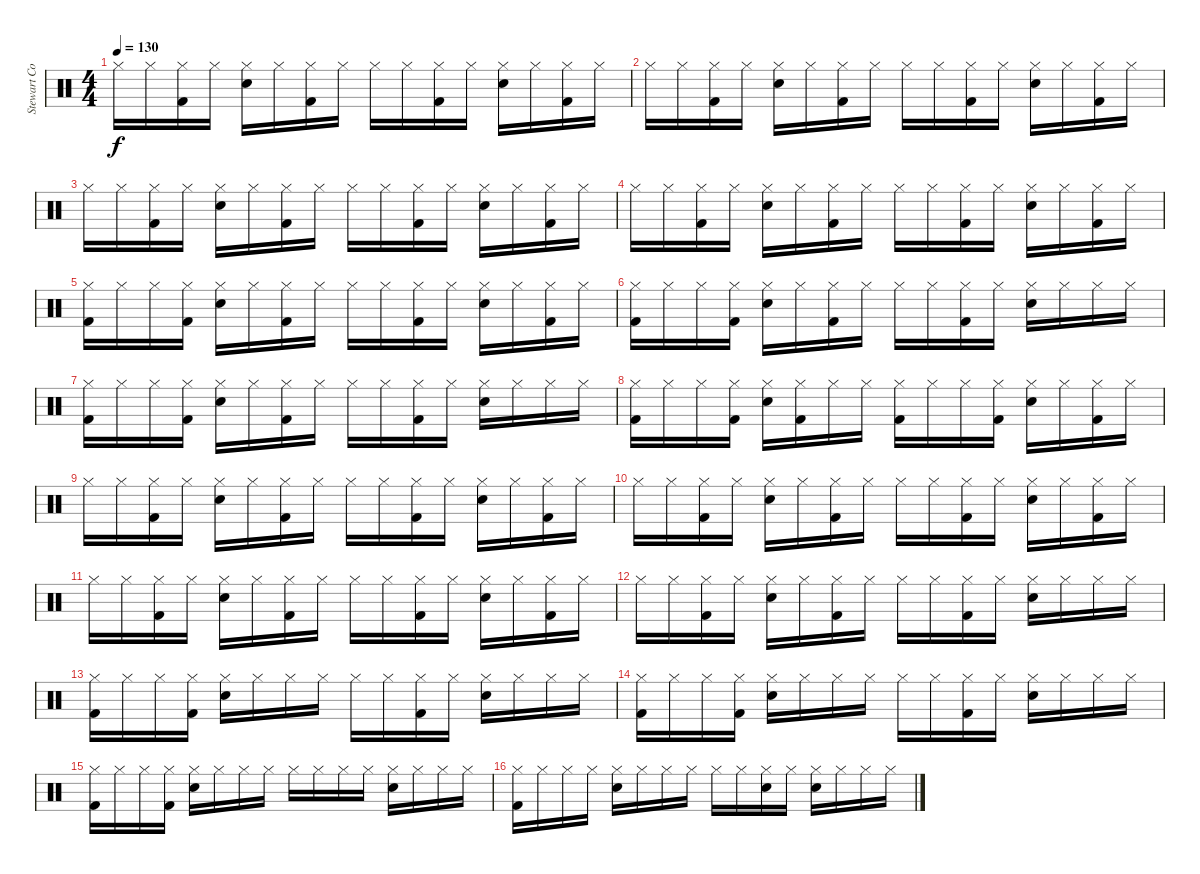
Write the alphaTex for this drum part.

\track ("Stewart Copeland" "Stewart Co") {instrument percussion}
\staff {score}
\articulation defaults
\ts (4 4)
\tempo 130
\clef neutral
\ks c "Hi-Hat (closed)".16{dy f} "Hi-Hat (closed)".16
("Hi-Hat (closed)" "Kick (hit) 2").16 "Hi-Hat (closed)".16 ("Hi-Hat (closed)" "Electric Snare (hit)").16 "Hi-Hat (closed)".16 ("Hi-Hat (closed)" "Kick (hit) 2").16 "Hi-Hat (closed)".16 "Hi-Hat (closed)".16 "Hi-Hat (closed)".16 ("Hi-Hat (closed)" "Kick (hit) 2").16 "Hi-Hat (closed)".16 ("Hi-Hat (closed)" "Electric Snare (hit)").16 "Hi-Hat (closed)".16 ("Hi-Hat (closed)" "Kick (hit) 2").16 "Hi-Hat (closed)".16 |
"Hi-Hat (closed)".16 "Hi-Hat (closed)".16 ("Hi-Hat (closed)" "Kick (hit) 2").16 "Hi-Hat (closed)".16 ("Hi-Hat (closed)" "Electric Snare (hit)").16 "Hi-Hat (closed)".16 ("Hi-Hat (closed)" "Kick (hit) 2").16 "Hi-Hat (closed)".16 "Hi-Hat (closed)".16 "Hi-Hat (closed)".16 ("Hi-Hat (closed)" "Kick (hit) 2").16 "Hi-Hat (closed)".16 ("Hi-Hat (closed)" "Electric Snare (hit)").16 "Hi-Hat (closed)".16 ("Hi-Hat (closed)" "Kick (hit) 2").16 "Hi-Hat (closed)".16 |
"Hi-Hat (closed)".16 "Hi-Hat (closed)".16 ("Hi-Hat (closed)" "Kick (hit) 2").16 "Hi-Hat (closed)".16 ("Hi-Hat (closed)" "Electric Snare (hit)").16 "Hi-Hat (closed)".16 ("Hi-Hat (closed)" "Kick (hit) 2").16 "Hi-Hat (closed)".16 "Hi-Hat (closed)".16 "Hi-Hat (closed)".16 ("Hi-Hat (closed)" "Kick (hit) 2").16 "Hi-Hat (closed)".16 ("Hi-Hat (closed)" "Electric Snare (hit)").16 "Hi-Hat (closed)".16 ("Hi-Hat (closed)" "Kick (hit) 2").16 "Hi-Hat (closed)".16 |
"Hi-Hat (closed)".16 "Hi-Hat (closed)".16 ("Hi-Hat (closed)" "Kick (hit) 2").16 "Hi-Hat (closed)".16 ("Hi-Hat (closed)" "Electric Snare (hit)").16 "Hi-Hat (closed)".16 ("Hi-Hat (closed)" "Kick (hit) 2").16 "Hi-Hat (closed)".16 "Hi-Hat (closed)".16 "Hi-Hat (closed)".16 ("Hi-Hat (closed)" "Kick (hit) 2").16 "Hi-Hat (closed)".16 ("Hi-Hat (closed)" "Electric Snare (hit)").16 "Hi-Hat (closed)".16 ("Hi-Hat (closed)" "Kick (hit) 2").16 "Hi-Hat (closed)".16 |
("Hi-Hat (closed)" "Kick (hit) 2").16 "Hi-Hat (closed)".16 "Hi-Hat (closed)".16 ("Hi-Hat (closed)" "Kick (hit) 2").16 ("Hi-Hat (closed)" "Electric Snare (hit)").16 "Hi-Hat (closed)".16 ("Hi-Hat (closed)" "Kick (hit) 2").16 "Hi-Hat (closed)".16 "Hi-Hat (closed)".16 "Hi-Hat (closed)".16 ("Hi-Hat (closed)" "Kick (hit) 2").16 "Hi-Hat (closed)".16 ("Hi-Hat (closed)" "Electric Snare (hit)").16 "Hi-Hat (closed)".16 ("Hi-Hat (closed)" "Kick (hit) 2").16 "Hi-Hat (closed)".16 |
("Hi-Hat (closed)" "Kick (hit) 2").16 "Hi-Hat (closed)".16 "Hi-Hat (closed)".16 ("Hi-Hat (closed)" "Kick (hit) 2").16 ("Hi-Hat (closed)" "Electric Snare (hit)").16 "Hi-Hat (closed)".16 ("Hi-Hat (closed)" "Kick (hit) 2").16 "Hi-Hat (closed)".16 "Hi-Hat (closed)".16 "Hi-Hat (closed)".16 ("Hi-Hat (closed)" "Kick (hit) 2").16 "Hi-Hat (closed)".16 ("Hi-Hat (closed)" "Electric Snare (hit)").16 "Hi-Hat (closed)".16 "Hi-Hat (closed)".16 "Hi-Hat (closed)".16 |
("Hi-Hat (closed)" "Kick (hit) 2").16 "Hi-Hat (closed)".16 "Hi-Hat (closed)".16 ("Hi-Hat (closed)" "Kick (hit) 2").16 ("Hi-Hat (closed)" "Electric Snare (hit)").16 "Hi-Hat (closed)".16 ("Hi-Hat (closed)" "Kick (hit) 2").16 "Hi-Hat (closed)".16 "Hi-Hat (closed)".16 "Hi-Hat (closed)".16 ("Hi-Hat (closed)" "Kick (hit) 2").16 "Hi-Hat (closed)".16 ("Hi-Hat (closed)" "Electric Snare (hit)").16 "Hi-Hat (closed)".16 "Hi-Hat (closed)".16 "Hi-Hat (closed)".16 |
("Hi-Hat (closed)" "Kick (hit) 2").16 "Hi-Hat (closed)".16 "Hi-Hat (closed)".16 ("Hi-Hat (closed)" "Kick (hit) 2").16 ("Hi-Hat (closed)" "Electric Snare (hit)").16 ("Hi-Hat (closed)" "Kick (hit) 2").16 "Hi-Hat (closed)".16 "Hi-Hat (closed)".16 ("Hi-Hat (closed)" "Kick (hit) 2").16 "Hi-Hat (closed)".16 "Hi-Hat (closed)".16 ("Hi-Hat (closed)" "Kick (hit) 2").16 ("Hi-Hat (closed)" "Electric Snare (hit)").16 "Hi-Hat (closed)".16 ("Hi-Hat (closed)" "Kick (hit) 2").16 "Hi-Hat (closed)".16 |
"Hi-Hat (closed)".16 "Hi-Hat (closed)".16 ("Hi-Hat (closed)" "Kick (hit) 2").16 "Hi-Hat (closed)".16 ("Hi-Hat (closed)" "Electric Snare (hit)").16 "Hi-Hat (closed)".16 ("Hi-Hat (closed)" "Kick (hit) 2").16 "Hi-Hat (closed)".16 "Hi-Hat (closed)".16 "Hi-Hat (closed)".16 ("Hi-Hat (closed)" "Kick (hit) 2").16 "Hi-Hat (closed)".16 ("Hi-Hat (closed)" "Electric Snare (hit)").16 "Hi-Hat (closed)".16 ("Hi-Hat (closed)" "Kick (hit) 2").16 "Hi-Hat (closed)".16 |
"Hi-Hat (closed)".16 "Hi-Hat (closed)".16 ("Hi-Hat (closed)" "Kick (hit) 2").16 "Hi-Hat (closed)".16 ("Hi-Hat (closed)" "Electric Snare (hit)").16 "Hi-Hat (closed)".16 ("Hi-Hat (closed)" "Kick (hit) 2").16 "Hi-Hat (closed)".16 "Hi-Hat (closed)".16 "Hi-Hat (closed)".16 ("Hi-Hat (closed)" "Kick (hit) 2").16 "Hi-Hat (closed)".16 ("Hi-Hat (closed)" "Electric Snare (hit)").16 "Hi-Hat (closed)".16 ("Hi-Hat (closed)" "Kick (hit) 2").16 "Hi-Hat (closed)".16 |
"Hi-Hat (closed)".16 "Hi-Hat (closed)".16 ("Hi-Hat (closed)" "Kick (hit) 2").16 "Hi-Hat (closed)".16 ("Hi-Hat (closed)" "Electric Snare (hit)").16 "Hi-Hat (closed)".16 ("Hi-Hat (closed)" "Kick (hit) 2").16 "Hi-Hat (closed)".16 "Hi-Hat (closed)".16 "Hi-Hat (closed)".16 ("Hi-Hat (closed)" "Kick (hit) 2").16 "Hi-Hat (closed)".16 ("Hi-Hat (closed)" "Electric Snare (hit)").16 "Hi-Hat (closed)".16 ("Hi-Hat (closed)" "Kick (hit) 2").16 "Hi-Hat (closed)".16 |
"Hi-Hat (closed)".16 "Hi-Hat (closed)".16 ("Hi-Hat (closed)" "Kick (hit) 2").16 "Hi-Hat (closed)".16 ("Hi-Hat (closed)" "Electric Snare (hit)").16 "Hi-Hat (closed)".16 ("Hi-Hat (closed)" "Kick (hit) 2").16 "Hi-Hat (closed)".16 "Hi-Hat (closed)".16 "Hi-Hat (closed)".16 ("Hi-Hat (closed)" "Kick (hit) 2").16 "Hi-Hat (closed)".16 ("Hi-Hat (closed)" "Electric Snare (hit)").16 "Hi-Hat (closed)".16 "Hi-Hat (closed)".16 "Hi-Hat (closed)".16 |
("Hi-Hat (closed)" "Kick (hit) 2").16 "Hi-Hat (closed)".16 "Hi-Hat (closed)".16 ("Hi-Hat (closed)" "Kick (hit) 2").16 ("Hi-Hat (closed)" "Electric Snare (hit)").16 "Hi-Hat (closed)".16 "Hi-Hat (closed)".16 "Hi-Hat (closed)".16 "Hi-Hat (closed)".16 "Hi-Hat (closed)".16 ("Hi-Hat (closed)" "Kick (hit) 2").16 "Hi-Hat (closed)".16 ("Hi-Hat (closed)" "Electric Snare (hit)").16 "Hi-Hat (closed)".16 "Hi-Hat (closed)".16 "Hi-Hat (closed)".16 |
("Hi-Hat (closed)" "Kick (hit) 2").16 "Hi-Hat (closed)".16 "Hi-Hat (closed)".16 ("Hi-Hat (closed)" "Kick (hit) 2").16 ("Hi-Hat (closed)" "Electric Snare (hit)").16 "Hi-Hat (closed)".16 "Hi-Hat (closed)".16 "Hi-Hat (closed)".16 "Hi-Hat (closed)".16 "Hi-Hat (closed)".16 ("Hi-Hat (closed)" "Kick (hit) 2").16 "Hi-Hat (closed)".16 ("Hi-Hat (closed)" "Electric Snare (hit)").16 "Hi-Hat (closed)".16 "Hi-Hat (closed)".16 "Hi-Hat (closed)".16 |
("Hi-Hat (closed)" "Kick (hit) 2").16 "Hi-Hat (closed)".16 "Hi-Hat (closed)".16 ("Hi-Hat (closed)" "Kick (hit) 2").16 ("Hi-Hat (closed)" "Electric Snare (hit)").16 "Hi-Hat (closed)".16 "Hi-Hat (closed)".16 "Hi-Hat (closed)".16 "Hi-Hat (closed)".16 "Hi-Hat (closed)".16 "Hi-Hat (closed)".16 "Hi-Hat (closed)".16 ("Hi-Hat (closed)" "Electric Snare (hit)").16 "Hi-Hat (closed)".16 "Hi-Hat (closed)".16 "Hi-Hat (closed)".16 |
("Hi-Hat (closed)" "Kick (hit) 2").16 "Hi-Hat (closed)".16 "Hi-Hat (closed)".16 "Hi-Hat (closed)".16 ("Hi-Hat (closed)" "Electric Snare (hit)").16 "Hi-Hat (closed)".16 "Hi-Hat (closed)".16 "Hi-Hat (closed)".16 "Hi-Hat (closed)".16 "Hi-Hat (closed)".16 ("Hi-Hat (closed)" "Electric Snare (hit)").16 "Hi-Hat (closed)".16 ("Hi-Hat (closed)" "Electric Snare (hit)").16 "Hi-Hat (closed)".16 "Hi-Hat (closed)".16 "Hi-Hat (closed)".16
